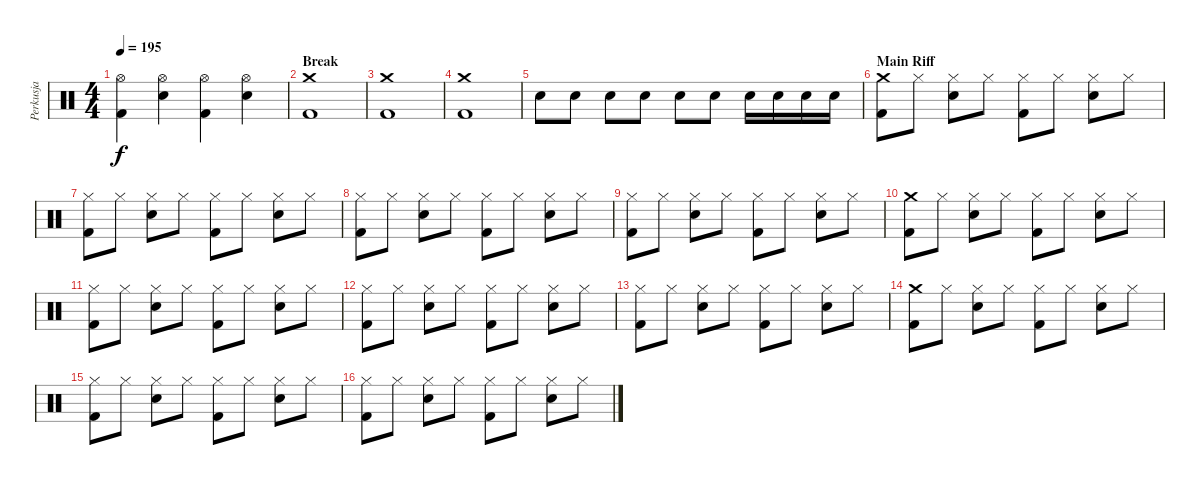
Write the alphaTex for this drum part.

\track ("Perkusja" "Perkusja") {instrument percussion}
\staff {score}
\articulation defaults
\ts (4 4)
\tempo 195
\clef neutral
\ks c
("Hi-Hat (open)" "Kick (hit) 2").4{dy f} ("Hi-Hat (open)" "Snare (hit) 2").4 ("Hi-Hat (open)" "Kick (hit) 2").4 ("Hi-Hat (open)" "Snare (hit) 2").4 |
\section ("" "Break")
("Crash medium (hit)" "Kick (hit) 2").1 |
("Crash medium (hit)" "Kick (hit) 2").1 |
("Crash medium (hit)" "Kick (hit) 2").1 |
"Snare (hit) 2".8 "Snare (hit) 2".8 "Snare (hit) 2".8 "Snare (hit) 2".8 "Snare (hit) 2".8 "Snare (hit) 2".8 "Snare (hit) 2".16 "Snare (hit) 2".16 "Snare (hit) 2".16 "Snare (hit) 2".16 |
\section ("" "Main Riff")
("Crash medium (hit)" "Kick (hit) 2").8 "Hi-Hat (closed)".8 ("Hi-Hat (closed)" "Snare (hit) 2").8 "Hi-Hat (closed)".8 ("Hi-Hat (closed)" "Kick (hit) 2").8 "Hi-Hat (closed)".8 ("Hi-Hat (closed)" "Snare (hit) 2").8 "Hi-Hat (closed)".8 |
("Hi-Hat (closed)" "Kick (hit) 2").8 "Hi-Hat (closed)".8 ("Hi-Hat (closed)" "Snare (hit) 2").8 "Hi-Hat (closed)".8 ("Hi-Hat (closed)" "Kick (hit) 2").8 "Hi-Hat (closed)".8 ("Hi-Hat (closed)" "Snare (hit) 2").8 "Hi-Hat (closed)".8 |
("Hi-Hat (closed)" "Kick (hit) 2").8 "Hi-Hat (closed)".8 ("Hi-Hat (closed)" "Snare (hit) 2").8 "Hi-Hat (closed)".8 ("Hi-Hat (closed)" "Kick (hit) 2").8 "Hi-Hat (closed)".8 ("Hi-Hat (closed)" "Snare (hit) 2").8 "Hi-Hat (closed)".8 |
("Hi-Hat (closed)" "Kick (hit) 2").8 "Hi-Hat (closed)".8 ("Hi-Hat (closed)" "Snare (hit) 2").8 "Hi-Hat (closed)".8 ("Hi-Hat (closed)" "Kick (hit) 2").8 "Hi-Hat (closed)".8 ("Hi-Hat (closed)" "Snare (hit) 2").8 "Hi-Hat (closed)".8 |
("Crash medium (hit)" "Kick (hit) 2").8 "Hi-Hat (closed)".8 ("Hi-Hat (closed)" "Snare (hit) 2").8 "Hi-Hat (closed)".8 ("Hi-Hat (closed)" "Kick (hit) 2").8 "Hi-Hat (closed)".8 ("Hi-Hat (closed)" "Snare (hit) 2").8 "Hi-Hat (closed)".8 |
("Hi-Hat (closed)" "Kick (hit) 2").8 "Hi-Hat (closed)".8 ("Hi-Hat (closed)" "Snare (hit) 2").8 "Hi-Hat (closed)".8 ("Hi-Hat (closed)" "Kick (hit) 2").8 "Hi-Hat (closed)".8 ("Hi-Hat (closed)" "Snare (hit) 2").8 "Hi-Hat (closed)".8 |
("Hi-Hat (closed)" "Kick (hit) 2").8 "Hi-Hat (closed)".8 ("Hi-Hat (closed)" "Snare (hit) 2").8 "Hi-Hat (closed)".8 ("Hi-Hat (closed)" "Kick (hit) 2").8 "Hi-Hat (closed)".8 ("Hi-Hat (closed)" "Snare (hit) 2").8 "Hi-Hat (closed)".8 |
("Hi-Hat (closed)" "Kick (hit) 2").8 "Hi-Hat (closed)".8 ("Hi-Hat (closed)" "Snare (hit) 2").8 "Hi-Hat (closed)".8 ("Hi-Hat (closed)" "Kick (hit) 2").8 "Hi-Hat (closed)".8 ("Hi-Hat (closed)" "Snare (hit) 2").8 "Hi-Hat (closed)".8 |
("Crash medium (hit)" "Kick (hit) 2").8 "Hi-Hat (closed)".8 ("Hi-Hat (closed)" "Snare (hit) 2").8 "Hi-Hat (closed)".8 ("Hi-Hat (closed)" "Kick (hit) 2").8 "Hi-Hat (closed)".8 ("Hi-Hat (closed)" "Snare (hit) 2").8 "Hi-Hat (closed)".8 |
("Hi-Hat (closed)" "Kick (hit) 2").8 "Hi-Hat (closed)".8 ("Hi-Hat (closed)" "Snare (hit) 2").8 "Hi-Hat (closed)".8 ("Hi-Hat (closed)" "Kick (hit) 2").8 "Hi-Hat (closed)".8 ("Hi-Hat (closed)" "Snare (hit) 2").8 "Hi-Hat (closed)".8 |
("Hi-Hat (closed)" "Kick (hit) 2").8 "Hi-Hat (closed)".8 ("Hi-Hat (closed)" "Snare (hit) 2").8 "Hi-Hat (closed)".8 ("Hi-Hat (closed)" "Kick (hit) 2").8 "Hi-Hat (closed)".8 ("Hi-Hat (closed)" "Snare (hit) 2").8 "Hi-Hat (closed)".8
